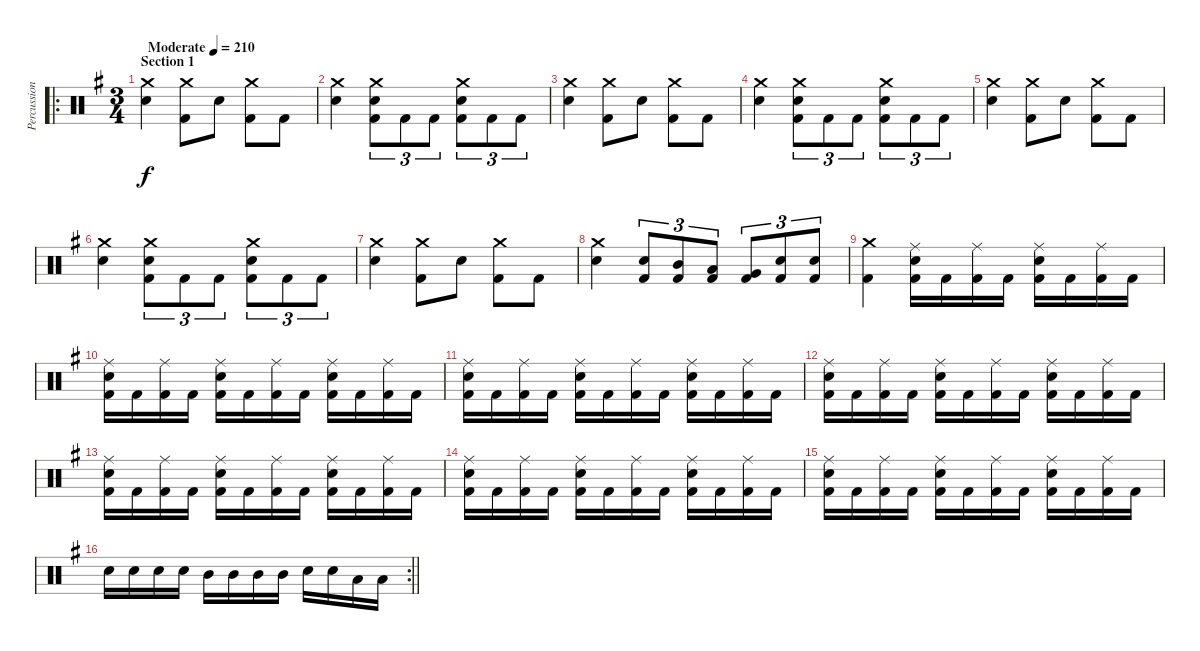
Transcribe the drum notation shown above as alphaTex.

\track ("Percussion" "Percussion") {instrument percussion}
\staff {score}
\articulation defaults
\ro
\ts (3 4)
\section ("" "Section 1")
\tempo (210 "Moderate")
\clef neutral
\ks eminor
("Crash medium (hit)" "Electric Snare (hit)").4{dy f} ("Crash medium (hit)" "Kick (hit) 2").8 "Electric Snare (hit)".8 ("Crash medium (hit)" "Kick (hit) 2").8 "Kick (hit) 2".8 |
("Crash medium (hit)" "Electric Snare (hit)").4 ("Crash medium (hit)" "Electric Snare (hit)" "Kick (hit) 2").8{tu (3 2)} "Kick (hit) 2".8{tu (3 2)} "Kick (hit) 2".8{tu (3 2)} ("Crash medium (hit)" "Electric Snare (hit)" "Kick (hit) 2").8{tu (3 2)} "Kick (hit) 2".8{tu (3 2)} "Kick (hit) 2".8{tu (3 2)} |
("Crash medium (hit)" "Electric Snare (hit)").4 ("Crash medium (hit)" "Kick (hit) 2").8 "Electric Snare (hit)".8 ("Crash medium (hit)" "Kick (hit) 2").8 "Kick (hit) 2".8 |
("Crash medium (hit)" "Electric Snare (hit)").4 ("Crash medium (hit)" "Electric Snare (hit)" "Kick (hit) 2").8{tu (3 2)} "Kick (hit) 2".8{tu (3 2)} "Kick (hit) 2".8{tu (3 2)} ("Crash medium (hit)" "Electric Snare (hit)" "Kick (hit) 2").8{tu (3 2)} "Kick (hit) 2".8{tu (3 2)} "Kick (hit) 2".8{tu (3 2)} |
("Crash medium (hit)" "Electric Snare (hit)").4 ("Crash medium (hit)" "Kick (hit) 2").8 "Electric Snare (hit)".8 ("Crash medium (hit)" "Kick (hit) 2").8 "Kick (hit) 2".8 |
("Crash medium (hit)" "Electric Snare (hit)").4 ("Crash medium (hit)" "Electric Snare (hit)" "Kick (hit) 2").8{tu (3 2)} "Kick (hit) 2".8{tu (3 2)} "Kick (hit) 2".8{tu (3 2)} ("Crash medium (hit)" "Electric Snare (hit)" "Kick (hit) 2").8{tu (3 2)} "Kick (hit) 2".8{tu (3 2)} "Kick (hit) 2".8{tu (3 2)} |
("Crash medium (hit)" "Electric Snare (hit)").4 ("Crash medium (hit)" "Kick (hit) 2").8 "Electric Snare (hit)".8 ("Crash medium (hit)" "Kick (hit) 2").8 "Kick (hit) 2".8 |
("Crash medium (hit)" "Electric Snare (hit)").4 ("Electric Snare (hit)" "Kick (hit) 2").8{tu (3 2)} ("Mid Tom (hit)" "Kick (hit) 2").8{tu (3 2)} ("Low Tom (hit)" "Kick (hit) 2").8{tu (3 2)} ("Very Low Tom (hit)" "Kick (hit) 2").8{tu (3 2)} ("Electric Snare (hit)" "Kick (hit) 2").8{tu (3 2)} ("Electric Snare (hit)" "Kick (hit) 2").8{tu (3 2)} |
("Crash medium (hit)" "Kick (hit) 2").4 ("Ride (middle)" "Electric Snare (hit)" "Kick (hit) 2").16 "Kick (hit) 2".16 ("Ride (middle)" "Kick (hit) 2").16 "Kick (hit) 2".16 ("Ride (middle)" "Electric Snare (hit)" "Kick (hit) 2").16 "Kick (hit) 2".16 ("Ride (middle)" "Kick (hit) 2").16 "Kick (hit) 2".16 |
("Ride (middle)" "Electric Snare (hit)" "Kick (hit) 2").16 "Kick (hit) 2".16 ("Ride (middle)" "Kick (hit) 2").16 "Kick (hit) 2".16 ("Ride (middle)" "Electric Snare (hit)" "Kick (hit) 2").16 "Kick (hit) 2".16 ("Ride (middle)" "Kick (hit) 2").16 "Kick (hit) 2".16 ("Ride (middle)" "Electric Snare (hit)" "Kick (hit) 2").16 "Kick (hit) 2".16 ("Ride (middle)" "Kick (hit) 2").16 "Kick (hit) 2".16 |
("Ride (middle)" "Electric Snare (hit)" "Kick (hit) 2").16 "Kick (hit) 2".16 ("Ride (middle)" "Kick (hit) 2").16 "Kick (hit) 2".16 ("Ride (middle)" "Electric Snare (hit)" "Kick (hit) 2").16 "Kick (hit) 2".16 ("Ride (middle)" "Kick (hit) 2").16 "Kick (hit) 2".16 ("Ride (middle)" "Electric Snare (hit)" "Kick (hit) 2").16 "Kick (hit) 2".16 ("Ride (middle)" "Kick (hit) 2").16 "Kick (hit) 2".16 |
("Ride (middle)" "Electric Snare (hit)" "Kick (hit) 2").16 "Kick (hit) 2".16 ("Ride (middle)" "Kick (hit) 2").16 "Kick (hit) 2".16 ("Ride (middle)" "Electric Snare (hit)" "Kick (hit) 2").16 "Kick (hit) 2".16 ("Ride (middle)" "Kick (hit) 2").16 "Kick (hit) 2".16 ("Ride (middle)" "Electric Snare (hit)" "Kick (hit) 2").16 "Kick (hit) 2".16 ("Ride (middle)" "Kick (hit) 2").16 "Kick (hit) 2".16 |
("Ride (middle)" "Electric Snare (hit)" "Kick (hit) 2").16 "Kick (hit) 2".16 ("Ride (middle)" "Kick (hit) 2").16 "Kick (hit) 2".16 ("Ride (middle)" "Electric Snare (hit)" "Kick (hit) 2").16 "Kick (hit) 2".16 ("Ride (middle)" "Kick (hit) 2").16 "Kick (hit) 2".16 ("Ride (middle)" "Electric Snare (hit)" "Kick (hit) 2").16 "Kick (hit) 2".16 ("Ride (middle)" "Kick (hit) 2").16 "Kick (hit) 2".16 |
("Ride (middle)" "Electric Snare (hit)" "Kick (hit) 2").16 "Kick (hit) 2".16 ("Ride (middle)" "Kick (hit) 2").16 "Kick (hit) 2".16 ("Ride (middle)" "Electric Snare (hit)" "Kick (hit) 2").16 "Kick (hit) 2".16 ("Ride (middle)" "Kick (hit) 2").16 "Kick (hit) 2".16 ("Ride (middle)" "Electric Snare (hit)" "Kick (hit) 2").16 "Kick (hit) 2".16 ("Ride (middle)" "Kick (hit) 2").16 "Kick (hit) 2".16 |
("Ride (middle)" "Electric Snare (hit)" "Kick (hit) 2").16 "Kick (hit) 2".16 ("Ride (middle)" "Kick (hit) 2").16 "Kick (hit) 2".16 ("Ride (middle)" "Electric Snare (hit)" "Kick (hit) 2").16 "Kick (hit) 2".16 ("Ride (middle)" "Kick (hit) 2").16 "Kick (hit) 2".16 ("Ride (middle)" "Electric Snare (hit)" "Kick (hit) 2").16 "Kick (hit) 2".16 ("Ride (middle)" "Kick (hit) 2").16 "Kick (hit) 2".16 |
\rc 2
\barLineRight lightlight "Electric Snare (hit)".16 "Electric Snare (hit)".16 "Electric Snare (hit)".16 "Electric Snare (hit)".16 "Mid Tom (hit)".16 "Mid Tom (hit)".16 "Mid Tom (hit)".16 "Mid Tom (hit)".16 "Electric Snare (hit)".16 "Electric Snare (hit)".16 "Low Tom (hit)".16 "Low Tom (hit)".16
